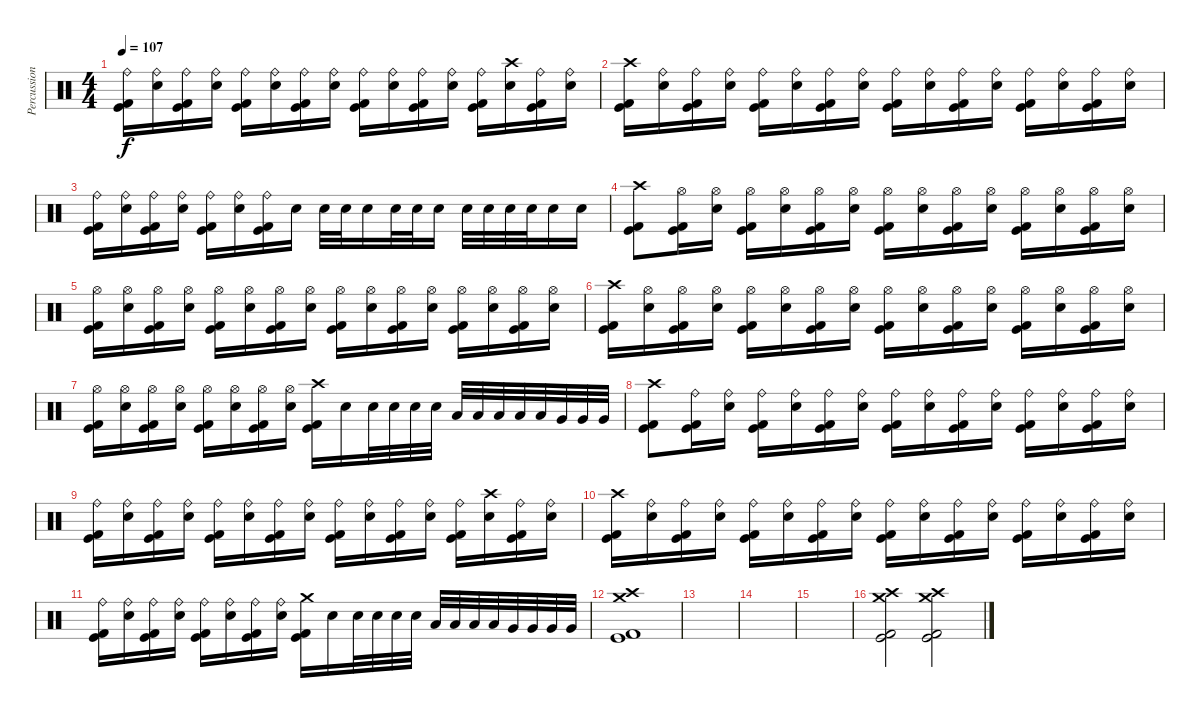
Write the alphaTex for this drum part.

\track ("Percussion" "Percussion") {instrument percussion}
\staff {score}
\articulation defaults
\ts (4 4)
\tempo 107
\clef neutral
\ks c
("Ride (bell)" "Kick (hit)" "Kick (hit) 2").16{dy f} ("Ride (bell)" "Electric Snare (hit)").16 ("Ride (bell)" "Kick (hit)" "Kick (hit) 2").16 ("Ride (bell)" "Electric Snare (hit)").16 ("Ride (bell)" "Kick (hit)" "Kick (hit) 2").16 ("Ride (bell)" "Electric Snare (hit)").16 ("Ride (bell)" "Kick (hit)" "Kick (hit) 2").16 ("Ride (bell)" "Electric Snare (hit)").16 ("Ride (bell)" "Kick (hit)" "Kick (hit) 2").16 ("Ride (bell)" "Electric Snare (hit)").16 ("Ride (bell)" "Kick (hit)" "Kick (hit) 2").16 ("Ride (bell)" "Electric Snare (hit)").16 ("Ride (bell)" "Kick (hit)" "Kick (hit) 2").16 ("Crash high (hit)" "Electric Snare (hit)").16 ("Ride (bell)" "Kick (hit)" "Kick (hit) 2").16 ("Ride (bell)" "Electric Snare (hit)").16 |
("Crash high (hit)" "Kick (hit)" "Kick (hit) 2").16 ("Ride (bell)" "Electric Snare (hit)").16 ("Ride (bell)" "Kick (hit)" "Kick (hit) 2").16 ("Ride (bell)" "Electric Snare (hit)").16 ("Ride (bell)" "Kick (hit)" "Kick (hit) 2").16 ("Ride (bell)" "Electric Snare (hit)").16 ("Ride (bell)" "Kick (hit)" "Kick (hit) 2").16 ("Ride (bell)" "Electric Snare (hit)").16 ("Ride (bell)" "Kick (hit)" "Kick (hit) 2").16 ("Ride (bell)" "Electric Snare (hit)").16 ("Ride (bell)" "Kick (hit)" "Kick (hit) 2").16 ("Ride (bell)" "Electric Snare (hit)").16 ("Ride (bell)" "Kick (hit)" "Kick (hit) 2").16 ("Ride (bell)" "Electric Snare (hit)").16 ("Ride (bell)" "Kick (hit)" "Kick (hit) 2").16 ("Ride (bell)" "Electric Snare (hit)").16 |
("Ride (bell)" "Kick (hit)" "Kick (hit) 2").16 ("Ride (bell)" "Electric Snare (hit)").16 ("Ride (bell)" "Kick (hit)" "Kick (hit) 2").16 ("Ride (bell)" "Electric Snare (hit)").16 ("Ride (bell)" "Kick (hit)" "Kick (hit) 2").16 ("Ride (bell)" "Electric Snare (hit)").16 ("Ride (bell)" "Kick (hit)" "Kick (hit) 2").16 "Electric Snare (hit)".16 "Electric Snare (hit)".32 "Electric Snare (hit)".32 "Electric Snare (hit)".16 "Electric Snare (hit)".32 "Electric Snare (hit)".32 "Electric Snare (hit)".16 "Electric Snare (hit)".32 "Electric Snare (hit)".32 "Electric Snare (hit)".32 "Electric Snare (hit)".32 "Electric Snare (hit)".16 "Electric Snare (hit)".16 |
("Crash high (hit)" "Kick (hit)" "Kick (hit) 2").8 ("Hi-Hat (open)" "Kick (hit)" "Kick (hit) 2").16 ("Hi-Hat (open)" "Electric Snare (hit)").16 ("Hi-Hat (open)" "Kick (hit)" "Kick (hit) 2").16 ("Hi-Hat (open)" "Electric Snare (hit)").16 ("Hi-Hat (open)" "Kick (hit)" "Kick (hit) 2").16 ("Hi-Hat (open)" "Electric Snare (hit)").16 ("Hi-Hat (open)" "Kick (hit)" "Kick (hit) 2").16 ("Hi-Hat (open)" "Electric Snare (hit)").16 ("Hi-Hat (open)" "Kick (hit)" "Kick (hit) 2").16 ("Hi-Hat (open)" "Electric Snare (hit)").16 ("Hi-Hat (open)" "Kick (hit)" "Kick (hit) 2").16 ("Hi-Hat (open)" "Electric Snare (hit)").16 ("Hi-Hat (open)" "Kick (hit)" "Kick (hit) 2").16 ("Hi-Hat (open)" "Electric Snare (hit)").16 |
("Hi-Hat (open)" "Kick (hit)" "Kick (hit) 2").16 ("Hi-Hat (open)" "Electric Snare (hit)").16 ("Hi-Hat (open)" "Kick (hit)" "Kick (hit) 2").16 ("Hi-Hat (open)" "Electric Snare (hit)").16 ("Hi-Hat (open)" "Kick (hit)" "Kick (hit) 2").16 ("Hi-Hat (open)" "Electric Snare (hit)").16 ("Hi-Hat (open)" "Kick (hit)" "Kick (hit) 2").16 ("Hi-Hat (open)" "Electric Snare (hit)").16 ("Hi-Hat (open)" "Kick (hit)" "Kick (hit) 2").16 ("Hi-Hat (open)" "Electric Snare (hit)").16 ("Hi-Hat (open)" "Kick (hit)" "Kick (hit) 2").16 ("Hi-Hat (open)" "Electric Snare (hit)").16 ("Hi-Hat (open)" "Kick (hit)" "Kick (hit) 2").16 ("Hi-Hat (open)" "Electric Snare (hit)").16 ("Hi-Hat (open)" "Kick (hit)" "Kick (hit) 2").16 ("Hi-Hat (open)" "Electric Snare (hit)").16 |
("Crash high (hit)" "Kick (hit)" "Kick (hit) 2").16 ("Hi-Hat (open)" "Electric Snare (hit)").16 ("Hi-Hat (open)" "Kick (hit)" "Kick (hit) 2").16 ("Hi-Hat (open)" "Electric Snare (hit)").16 ("Hi-Hat (open)" "Kick (hit)" "Kick (hit) 2").16 ("Hi-Hat (open)" "Electric Snare (hit)").16 ("Hi-Hat (open)" "Kick (hit)" "Kick (hit) 2").16 ("Hi-Hat (open)" "Electric Snare (hit)").16 ("Hi-Hat (open)" "Kick (hit)" "Kick (hit) 2").16 ("Hi-Hat (open)" "Electric Snare (hit)").16 ("Hi-Hat (open)" "Kick (hit)" "Kick (hit) 2").16 ("Hi-Hat (open)" "Electric Snare (hit)").16 ("Hi-Hat (open)" "Kick (hit)" "Kick (hit) 2").16 ("Hi-Hat (open)" "Electric Snare (hit)").16 ("Hi-Hat (open)" "Kick (hit)" "Kick (hit) 2").16 ("Hi-Hat (open)" "Electric Snare (hit)").16 |
("Hi-Hat (open)" "Kick (hit)" "Kick (hit) 2").16 ("Hi-Hat (open)" "Electric Snare (hit)").16 ("Hi-Hat (open)" "Kick (hit)" "Kick (hit) 2").16 ("Hi-Hat (open)" "Electric Snare (hit)").16 ("Hi-Hat (open)" "Kick (hit)" "Kick (hit) 2").16 ("Hi-Hat (open)" "Electric Snare (hit)").16 ("Hi-Hat (open)" "Kick (hit)" "Kick (hit) 2").16 ("Hi-Hat (open)" "Electric Snare (hit)").16 ("Crash high (hit)" "Kick (hit)" "Kick (hit) 2").16 "Electric Snare (hit)".16 "Electric Snare (hit)".32 "Electric Snare (hit)".32 "Electric Snare (hit)".32 "Electric Snare (hit)".32 "Low Tom (hit)".32 "Low Tom (hit)".32 "Low Tom (hit)".32 "Low Tom (hit)".32 "Low Tom (hit)".32 "Very Low Tom (hit)".32 "Very Low Tom (hit)".32 "Very Low Tom (hit)".32 |
("Crash high (hit)" "Kick (hit)" "Kick (hit) 2").8 ("Ride (bell)" "Kick (hit)" "Kick (hit) 2").16 ("Ride (bell)" "Electric Snare (hit)").16 ("Ride (bell)" "Kick (hit)" "Kick (hit) 2").16 ("Ride (bell)" "Electric Snare (hit)").16 ("Ride (bell)" "Kick (hit)" "Kick (hit) 2").16 ("Ride (bell)" "Electric Snare (hit)").16 ("Ride (bell)" "Kick (hit)" "Kick (hit) 2").16 ("Ride (bell)" "Electric Snare (hit)").16 ("Ride (bell)" "Kick (hit)" "Kick (hit) 2").16 ("Ride (bell)" "Electric Snare (hit)").16 ("Ride (bell)" "Kick (hit)" "Kick (hit) 2").16 ("Ride (bell)" "Electric Snare (hit)").16 ("Ride (bell)" "Kick (hit)" "Kick (hit) 2").16 ("Ride (bell)" "Electric Snare (hit)").16 |
("Ride (bell)" "Kick (hit)" "Kick (hit) 2").16 ("Ride (bell)" "Electric Snare (hit)").16 ("Ride (bell)" "Kick (hit)" "Kick (hit) 2").16 ("Ride (bell)" "Electric Snare (hit)").16 ("Ride (bell)" "Kick (hit)" "Kick (hit) 2").16 ("Ride (bell)" "Electric Snare (hit)").16 ("Ride (bell)" "Kick (hit)" "Kick (hit) 2").16 ("Ride (bell)" "Electric Snare (hit)").16 ("Ride (bell)" "Kick (hit)" "Kick (hit) 2").16 ("Ride (bell)" "Electric Snare (hit)").16 ("Ride (bell)" "Kick (hit)" "Kick (hit) 2").16 ("Ride (bell)" "Electric Snare (hit)").16 ("Ride (bell)" "Kick (hit)" "Kick (hit) 2").16 ("Crash high (hit)" "Electric Snare (hit)").16 ("Ride (bell)" "Kick (hit)" "Kick (hit) 2").16 ("Ride (bell)" "Electric Snare (hit)").16 |
("Crash high (hit)" "Kick (hit)" "Kick (hit) 2").16 ("Ride (bell)" "Electric Snare (hit)").16 ("Ride (bell)" "Kick (hit)" "Kick (hit) 2").16 ("Ride (bell)" "Electric Snare (hit)").16 ("Ride (bell)" "Kick (hit)" "Kick (hit) 2").16 ("Ride (bell)" "Electric Snare (hit)").16 ("Ride (bell)" "Kick (hit)" "Kick (hit) 2").16 ("Ride (bell)" "Electric Snare (hit)").16 ("Ride (bell)" "Kick (hit)" "Kick (hit) 2").16 ("Ride (bell)" "Electric Snare (hit)").16 ("Ride (bell)" "Kick (hit)" "Kick (hit) 2").16 ("Ride (bell)" "Electric Snare (hit)").16 ("Ride (bell)" "Kick (hit)" "Kick (hit) 2").16 ("Ride (bell)" "Electric Snare (hit)").16 ("Ride (bell)" "Kick (hit)" "Kick (hit) 2").16 ("Ride (bell)" "Electric Snare (hit)").16 |
("Ride (bell)" "Kick (hit)" "Kick (hit) 2").16 ("Ride (bell)" "Electric Snare (hit)").16 ("Ride (bell)" "Kick (hit)" "Kick (hit) 2").16 ("Ride (bell)" "Electric Snare (hit)").16 ("Ride (bell)" "Kick (hit)" "Kick (hit) 2").16 ("Ride (bell)" "Electric Snare (hit)").16 ("Ride (bell)" "Kick (hit)" "Kick (hit) 2").16 ("Ride (bell)" "Electric Snare (hit)").16 ("Crash medium (hit)" "Kick (hit)" "Kick (hit) 2").16 "Electric Snare (hit)".16 "Electric Snare (hit)".32 "Electric Snare (hit)".32 "Electric Snare (hit)".32 "Electric Snare (hit)".32 "Low Tom (hit)".32 "Low Tom (hit)".32 "Low Tom (hit)".32 "Low Tom (hit)".32 "Very Low Tom (hit)".32 "Very Low Tom (hit)".32 "Very Low Tom (hit)".32 "Very Low Tom (hit)".32 |
("Crash high (hit)" "Crash medium (hit)" "Kick (hit)" "Kick (hit) 2").1 |
|
|
|
("Crash high (hit)" "Crash medium (hit)" "Kick (hit)" "Kick (hit) 2").2 ("Crash high (hit)" "Crash medium (hit)" "Kick (hit)" "Kick (hit) 2").2
